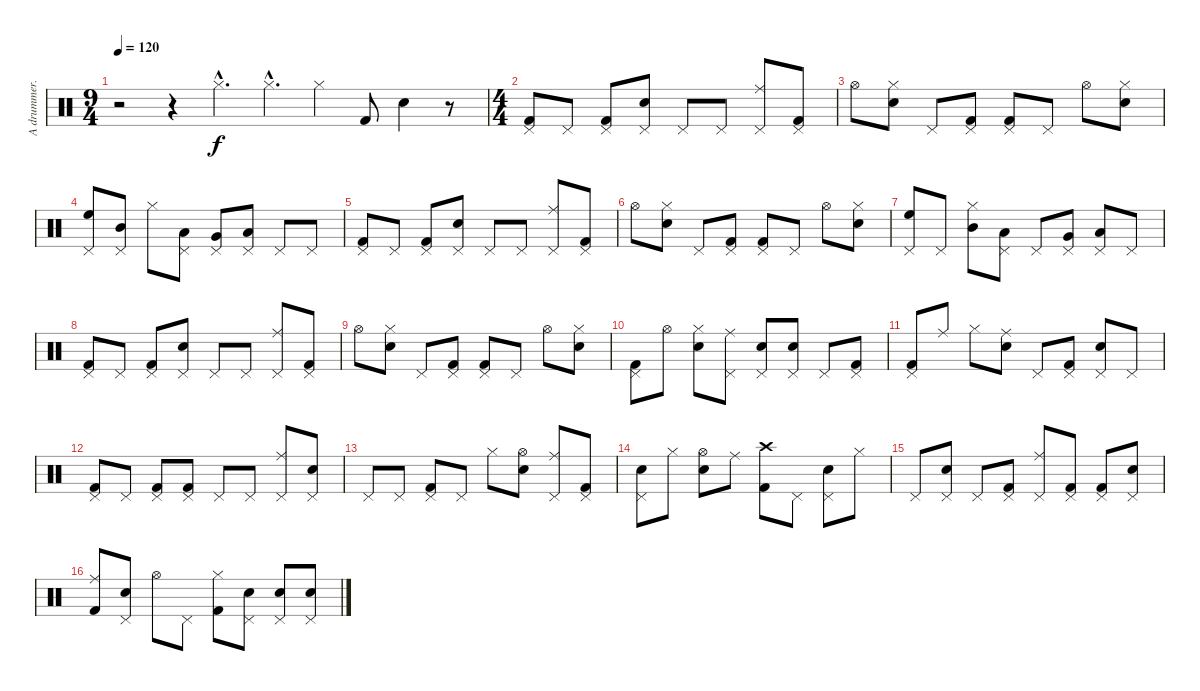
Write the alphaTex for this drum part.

\track ("A drummer...." "A drummer.") {instrument percussion}
\staff {score}
\articulation defaults
\ts (9 4)
\tempo 120
\clef neutral
\ks c
r.2{dy f} r.4 "Hi-Hat (closed)"{hac}.4{d} "Hi-Hat (closed)"{hac}.4{d} "Hi-Hat (closed)".4 "Kick (hit) 2".8 "Snare (hit) 2".4 r.8 |
\ts (4 4)
("Pedal Hi-Hat (hit)" "Kick (hit) 2").8 "Pedal Hi-Hat (hit)".8 ("Pedal Hi-Hat (hit)" "Kick (hit) 2").8 ("Pedal Hi-Hat (hit)" "Snare (hit) 2").8 "Pedal Hi-Hat (hit)".8 "Pedal Hi-Hat (hit)".8 ("Pedal Hi-Hat (hit)" "Ride (middle)").8 ("Pedal Hi-Hat (hit)" "Kick (hit) 2").8 |
"Hi-Hat (open)".8 ("Hi-Hat (closed)" "Snare (hit) 2").8 "Pedal Hi-Hat (hit)".8 ("Pedal Hi-Hat (hit)" "Kick (hit) 2").8 ("Pedal Hi-Hat (hit)" "Kick (hit) 2").8 "Pedal Hi-Hat (hit)".8 "Hi-Hat (open)".8 ("Hi-Hat (closed)" "Snare (hit) 2").8 |
("Pedal Hi-Hat (hit)" "High Floor Tom (hit)").8 ("Pedal Hi-Hat (hit)" "Mid Tom (hit)").8 "Hi-Hat (closed)".8 ("Pedal Hi-Hat (hit)" "Low Tom (hit)").8 ("Pedal Hi-Hat (hit)" "Very Low Tom (hit)").8 ("Pedal Hi-Hat (hit)" "Low Floor Tom (hit)").8 "Pedal Hi-Hat (hit)".8 "Pedal Hi-Hat (hit)".8 |
("Pedal Hi-Hat (hit)" "Kick (hit) 2").8 "Pedal Hi-Hat (hit)".8 ("Pedal Hi-Hat (hit)" "Kick (hit) 2").8 ("Pedal Hi-Hat (hit)" "Snare (hit) 2").8 "Pedal Hi-Hat (hit)".8 "Pedal Hi-Hat (hit)".8 ("Pedal Hi-Hat (hit)" "Ride (middle)").8 ("Pedal Hi-Hat (hit)" "Kick (hit) 2").8 |
"Hi-Hat (open)".8 ("Hi-Hat (closed)" "Snare (hit) 2").8 "Pedal Hi-Hat (hit)".8 ("Pedal Hi-Hat (hit)" "Kick (hit) 2").8 ("Pedal Hi-Hat (hit)" "Kick (hit) 2").8 "Pedal Hi-Hat (hit)".8 "Hi-Hat (open)".8 ("Hi-Hat (closed)" "Snare (hit) 2").8 |
("Pedal Hi-Hat (hit)" "High Floor Tom (hit)").8 "Pedal Hi-Hat (hit)".8 ("Hi-Hat (closed)" "Mid Tom (hit)").8 ("Pedal Hi-Hat (hit)" "Low Tom (hit)").8 "Pedal Hi-Hat (hit)".8 ("Pedal Hi-Hat (hit)" "Very Low Tom (hit)").8 ("Pedal Hi-Hat (hit)" "Low Floor Tom (hit)").8 "Pedal Hi-Hat (hit)".8 |
("Pedal Hi-Hat (hit)" "Kick (hit) 2").8 "Pedal Hi-Hat (hit)".8 ("Pedal Hi-Hat (hit)" "Kick (hit) 2").8 ("Pedal Hi-Hat (hit)" "Snare (hit) 2").8 "Pedal Hi-Hat (hit)".8 "Pedal Hi-Hat (hit)".8 ("Pedal Hi-Hat (hit)" "Ride (middle)").8 ("Pedal Hi-Hat (hit)" "Kick (hit) 2").8 |
"Hi-Hat (open)".8 ("Hi-Hat (closed)" "Snare (hit) 2").8 "Pedal Hi-Hat (hit)".8 ("Pedal Hi-Hat (hit)" "Kick (hit) 2").8 ("Pedal Hi-Hat (hit)" "Kick (hit) 2").8 "Pedal Hi-Hat (hit)".8 "Hi-Hat (open)".8 ("Hi-Hat (closed)" "Snare (hit) 2").8 |
("Pedal Hi-Hat (hit)" "Kick (hit) 2").8 "Hi-Hat (open)".8 ("Hi-Hat (closed)" "Snare (hit) 2").8 ("Pedal Hi-Hat (hit)" "Ride (middle)").8 ("Pedal Hi-Hat (hit)" "Snare (hit) 2").8 ("Pedal Hi-Hat (hit)" "Snare (hit) 2").8 "Pedal Hi-Hat (hit)".8 ("Pedal Hi-Hat (hit)" "Kick (hit) 2").8 |
("Pedal Hi-Hat (hit)" "Kick (hit) 2").8 "Ride (middle)".8 "Hi-Hat (closed)".8 ("Ride (middle)" "Snare (hit) 2").8 "Pedal Hi-Hat (hit)".8 ("Pedal Hi-Hat (hit)" "Kick (hit) 2").8 ("Pedal Hi-Hat (hit)" "Snare (hit) 2").8 "Pedal Hi-Hat (hit)".8 |
("Pedal Hi-Hat (hit)" "Kick (hit) 2").8 "Pedal Hi-Hat (hit)".8 ("Pedal Hi-Hat (hit)" "Kick (hit) 2").8 ("Pedal Hi-Hat (hit)" "Kick (hit) 2").8 "Pedal Hi-Hat (hit)".8 "Pedal Hi-Hat (hit)".8 ("Pedal Hi-Hat (hit)" "Ride (middle)").8 ("Pedal Hi-Hat (hit)" "Snare (hit) 2").8 |
"Pedal Hi-Hat (hit)".8 "Pedal Hi-Hat (hit)".8 ("Pedal Hi-Hat (hit)" "Kick (hit) 2").8 "Pedal Hi-Hat (hit)".8 "Hi-Hat (closed)".8 ("Hi-Hat (open)" "Snare (hit) 2").8 ("Pedal Hi-Hat (hit)" "Ride (middle)").8 ("Pedal Hi-Hat (hit)" "Kick (hit) 2").8 |
("Pedal Hi-Hat (hit)" "Snare (hit) 2").8 "Hi-Hat (closed)".8 ("Hi-Hat (open)" "Snare (hit) 2").8 "Ride (middle)".8 ("Crash high (hit)" "Kick (hit) 2").8 "Pedal Hi-Hat (hit)".8 ("Pedal Hi-Hat (hit)" "Snare (hit) 2").8 "Hi-Hat (closed)".8 |
"Pedal Hi-Hat (hit)".8 ("Pedal Hi-Hat (hit)" "Snare (hit) 2").8 "Pedal Hi-Hat (hit)".8 ("Pedal Hi-Hat (hit)" "Kick (hit) 2").8 ("Pedal Hi-Hat (hit)" "Ride (middle)").8 ("Pedal Hi-Hat (hit)" "Kick (hit) 2").8 ("Pedal Hi-Hat (hit)" "Kick (hit) 2").8 ("Pedal Hi-Hat (hit)" "Snare (hit) 2").8 |
("Ride (middle)" "Kick (hit) 2").8 ("Pedal Hi-Hat (hit)" "Snare (hit) 2").8 "Hi-Hat (open)".8 "Pedal Hi-Hat (hit)".8 ("Hi-Hat (closed)" "Kick (hit) 2").8 ("Pedal Hi-Hat (hit)" "Snare (hit) 2").8 ("Pedal Hi-Hat (hit)" "Snare (hit) 2").8 ("Pedal Hi-Hat (hit)" "Snare (hit) 2").8
